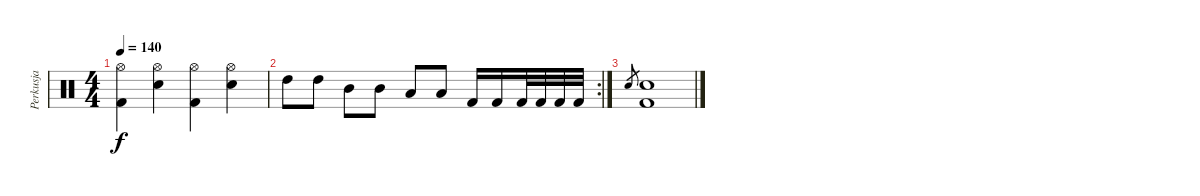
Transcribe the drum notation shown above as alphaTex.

\track ("Perkusja" "Perkusja") {instrument percussion}
\staff {score}
\articulation defaults
\ts (4 4)
\tempo 140
\clef neutral
\ks c
("Kick (hit) 2" "Hi-Hat (open)").4{dy f} ("Snare (hit) 2" "Hi-Hat (open)").4 ("Kick (hit) 2" "Hi-Hat (open)").4 ("Snare (hit) 2" "Hi-Hat (open)").4 |
\rc 2 "High Tom (hit)".8 "High Tom (hit)".8 "Mid Tom (hit)".8 "Mid Tom (hit)".8 "Low Tom (hit)".8 "Low Tom (hit)".8 "Kick (hit) 2".16 "Kick (hit) 2".16 "Kick (hit) 2".32 "Kick (hit) 2".32 "Kick (hit) 2".32 "Kick (hit) 2".32
|
"Snare (hit) 2".8{gr} ("Kick (hit) 2" "Snare (hit) 2").1
